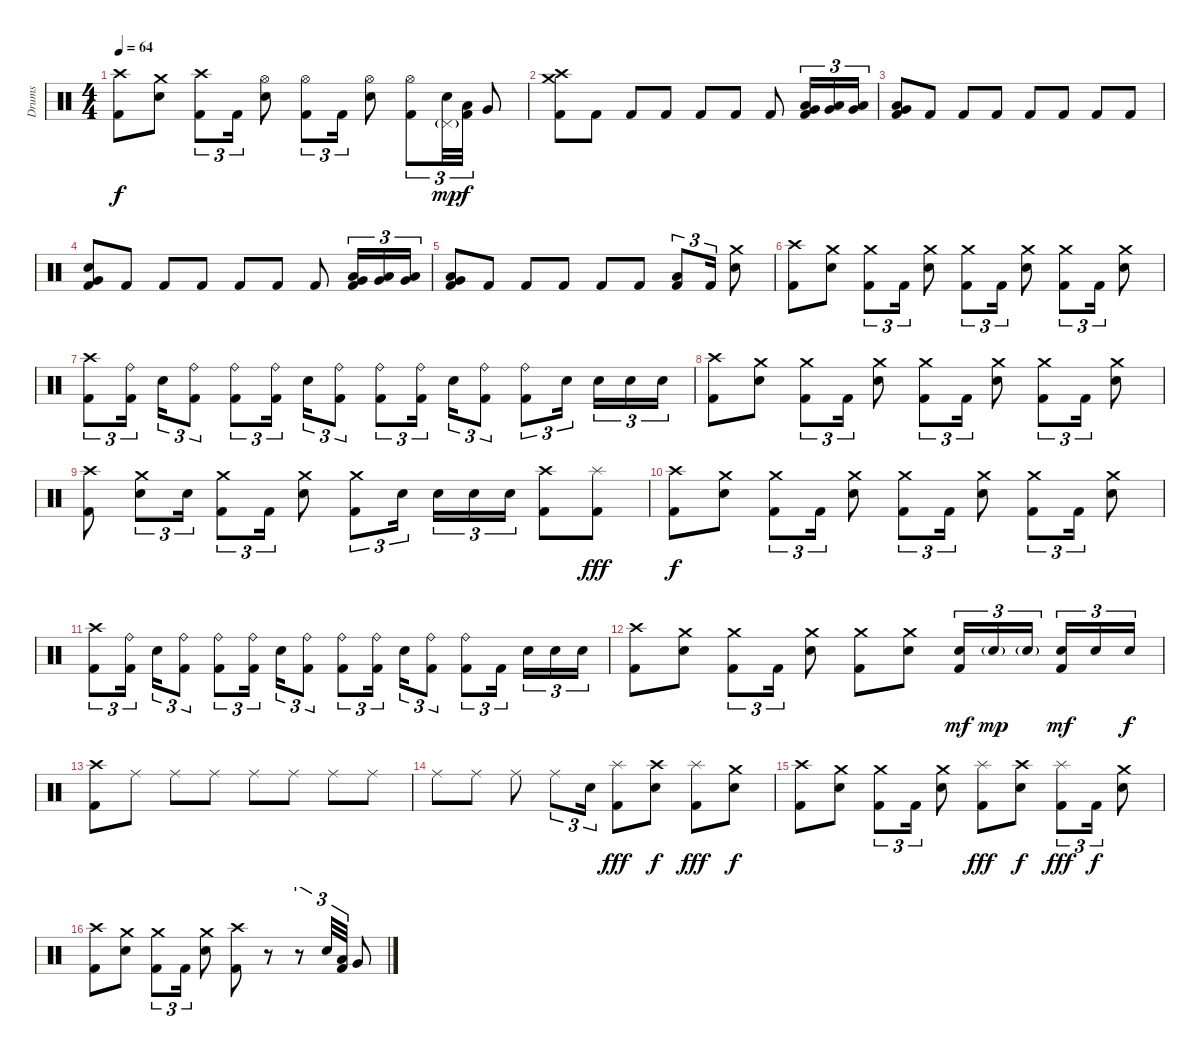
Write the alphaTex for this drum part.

\track ("Drums" "Drums") {instrument percussion}
\staff {score}
\articulation defaults
\ts (4 4)
\tempo 64
\clef neutral
\ks c
("Crash high (hit)" "Kick (hit) 2").8{dy f} ("Crash medium (hit)" "Snare (hit) 2").8 ("Crash high (hit)" "Kick (hit) 2").8{tu (3 2)} "Kick (hit) 2".16{tu (3 2)} ("Hi-Hat (open)" "Snare (hit) 2").8 ("Hi-Hat (open)" "Kick (hit) 2").8{tu (3 2)} "Kick (hit) 2".16{tu (3 2)} ("Hi-Hat (open)" "Snare (hit) 2").8 ("Hi-Hat (open)" "Kick (hit) 2").8{tu (3 2)} ("Pedal Hi-Hat (hit)"{g} "Snare (hit) 2").32{tu (3 2) dy mp} ("Low Tom (hit)" "Kick (hit) 2").32{tu (3 2) dy f} "Very Low Tom (hit)".8 |
("Crash high (hit)" "Crash medium (hit)" "Kick (hit) 2").8 "Kick (hit) 2".8 "Kick (hit) 2".8 "Kick (hit) 2".8 "Kick (hit) 2".8 "Kick (hit) 2".8 "Kick (hit) 2".8 ("Low Tom (hit)" "Very Low Tom (hit)" "Kick (hit) 2").16{tu (3 2)} ("Low Tom (hit)" "Very Low Tom (hit)").16{tu (3 2)} ("Low Tom (hit)" "Very Low Tom (hit)").16{tu (3 2)} |
("Low Tom (hit)" "Very Low Tom (hit)" "Kick (hit) 2").8 "Kick (hit) 2".8 "Kick (hit) 2".8 "Kick (hit) 2".8 "Kick (hit) 2".8 "Kick (hit) 2".8 "Kick (hit) 2".8 "Kick (hit) 2".8 |
("Snare (hit) 2" "Very Low Tom (hit)" "Kick (hit) 2").8 "Kick (hit) 2".8 "Kick (hit) 2".8 "Kick (hit) 2".8 "Kick (hit) 2".8 "Kick (hit) 2".8 "Kick (hit) 2".8 ("Low Tom (hit)" "Very Low Tom (hit)" "Kick (hit) 2").16{tu (3 2)} ("Low Tom (hit)" "Very Low Tom (hit)").16{tu (3 2)} ("Low Tom (hit)" "Very Low Tom (hit)").16{tu (3 2)} |
("Low Tom (hit)" "Very Low Tom (hit)" "Kick (hit) 2").8 "Kick (hit) 2".8 "Kick (hit) 2".8 "Kick (hit) 2".8 "Kick (hit) 2".8 "Kick (hit) 2".8 ("Low Tom (hit)" "Kick (hit) 2").8{tu (3 2)} "Kick (hit) 2".16{tu (3 2)} ("Crash medium (hit)" "Snare (hit) 2").8 |
("Crash high (hit)" "Kick (hit) 2").8 ("Crash medium (hit)" "Snare (hit) 2").8 ("Crash medium (hit)" "Kick (hit) 2").8{tu (3 2)} "Kick (hit) 2".16{tu (3 2)} ("Crash medium (hit)" "Snare (hit) 2").8 ("Crash medium (hit)" "Kick (hit) 2").8{tu (3 2)} "Kick (hit) 2".16{tu (3 2)} ("Crash medium (hit)" "Snare (hit) 2").8 ("Crash medium (hit)" "Kick (hit) 2").8{tu (3 2)} "Kick (hit) 2".16{tu (3 2)} ("Crash medium (hit)" "Snare (hit) 2").8 |
("Crash high (hit)" "Kick (hit) 2").8{tu (3 2)} ("Ride (bell)" "Kick (hit) 2").16{tu (3 2)} "Snare (hit) 2".16{tu (3 2)} ("Ride (bell)" "Kick (hit) 2").8{tu (3 2)} ("Ride (bell)" "Kick (hit) 2").8{tu (3 2)} ("Ride (bell)" "Kick (hit) 2").16{tu (3 2)} "Snare (hit) 2".16{tu (3 2)} ("Ride (bell)" "Kick (hit) 2").8{tu (3 2)} ("Ride (bell)" "Kick (hit) 2").8{tu (3 2)} ("Ride (bell)" "Kick (hit) 2").16{tu (3 2)} "Snare (hit) 2".16{tu (3 2)} ("Ride (bell)" "Kick (hit) 2").8{tu (3 2)} ("Ride (bell)" "Kick (hit) 2").8{tu (3 2)} "Snare (hit) 2".16{tu (3 2)} "Snare (hit) 2".16{tu (3 2)} "Snare (hit) 2".16{tu (3 2)} "Snare (hit) 2".16{tu (3 2)} |
("Crash high (hit)" "Kick (hit) 2").8 ("Crash medium (hit)" "Snare (hit) 2").8 ("Crash medium (hit)" "Kick (hit) 2").8{tu (3 2)} "Kick (hit) 2".16{tu (3 2)} ("Crash medium (hit)" "Snare (hit) 2").8 ("Crash medium (hit)" "Kick (hit) 2").8{tu (3 2)} "Kick (hit) 2".16{tu (3 2)} ("Crash medium (hit)" "Snare (hit) 2").8 ("Crash medium (hit)" "Kick (hit) 2").8{tu (3 2)} "Kick (hit) 2".16{tu (3 2)} ("Crash medium (hit)" "Snare (hit) 2").8 |
("Crash high (hit)" "Kick (hit) 2").8 ("Crash medium (hit)" "Snare (hit) 2").8{tu (3 2)} "Snare (hit) 2".16{tu (3 2)} ("Crash medium (hit)" "Kick (hit) 2").8{tu (3 2)} "Kick (hit) 2".16{tu (3 2)} ("Crash medium (hit)" "Snare (hit) 2").8 ("Crash medium (hit)" "Kick (hit) 2").8{tu (3 2)} "Snare (hit) 2".16{tu (3 2)} "Snare (hit) 2".16{tu (3 2)} "Snare (hit) 2".16{tu (3 2)} "Snare (hit) 2".16{tu (3 2)} ("Crash high (hit)" "Kick (hit) 2").8 ("Splash (hit)" "Kick (hit) 2").8{dy fff} |
("Crash high (hit)" "Kick (hit) 2").8{dy f} ("Crash medium (hit)" "Snare (hit) 2").8 ("Crash medium (hit)" "Kick (hit) 2").8{tu (3 2)} "Kick (hit) 2".16{tu (3 2)} ("Crash medium (hit)" "Snare (hit) 2").8 ("Crash medium (hit)" "Kick (hit) 2").8{tu (3 2)} "Kick (hit) 2".16{tu (3 2)} ("Crash medium (hit)" "Snare (hit) 2").8 ("Crash medium (hit)" "Kick (hit) 2").8{tu (3 2)} "Kick (hit) 2".16{tu (3 2)} ("Crash medium (hit)" "Snare (hit) 2").8 |
("Crash high (hit)" "Kick (hit) 2").8{tu (3 2)} ("Ride (bell)" "Kick (hit) 2").16{tu (3 2)} "Snare (hit) 2".16{tu (3 2)} ("Ride (bell)" "Kick (hit) 2").8{tu (3 2)} ("Ride (bell)" "Kick (hit) 2").8{tu (3 2)} ("Ride (bell)" "Kick (hit) 2").16{tu (3 2)} "Snare (hit) 2".16{tu (3 2)} ("Ride (bell)" "Kick (hit) 2").8{tu (3 2)} ("Ride (bell)" "Kick (hit) 2").8{tu (3 2)} ("Ride (bell)" "Kick (hit) 2").16{tu (3 2)} "Snare (hit) 2".16{tu (3 2)} ("Ride (bell)" "Kick (hit) 2").8{tu (3 2)} ("Ride (bell)" "Kick (hit) 2").8{tu (3 2)} "Kick (hit) 2".16{tu (3 2)} "Snare (hit) 2".16{tu (3 2)} "Snare (hit) 2".16{tu (3 2)} "Snare (hit) 2".16{tu (3 2)} |
("Crash high (hit)" "Kick (hit) 2").8 ("Crash medium (hit)" "Snare (hit) 2").8 ("Crash medium (hit)" "Kick (hit) 2").8{tu (3 2)} "Kick (hit) 2".16{tu (3 2)} ("Crash medium (hit)" "Snare (hit) 2").8 ("Crash medium (hit)" "Kick (hit) 2").8 ("Crash medium (hit)" "Snare (hit) 2").8 ("Snare (hit) 2" "Kick (hit) 2").16{tu (3 2) dy mf} "Snare (hit) 2"{g}.16{tu (3 2) dy mp} "Snare (hit) 2"{g}.16{tu (3 2)} ("Snare (hit) 2" "Kick (hit) 2").16{tu (3 2) dy mf} "Snare (hit) 2".16{tu (3 2)} "Snare (hit) 2".16{tu (3 2) dy f} |
("Crash high (hit)" "Kick (hit) 2").8 "Ride (middle)".8 "Ride (middle)".8 "Ride (middle)".8 "Ride (middle)".8 "Ride (middle)".8 "Ride (middle)".8 "Ride (middle)".8 |
"Ride (middle)".8 "Ride (middle)".8 "Ride (middle)".8 "Ride (middle)".8{tu (3 2)} "Snare (hit) 2".16{tu (3 2)} ("Splash (hit)" "Kick (hit) 2").8{dy fff} ("Crash high (hit)" "Snare (hit) 2").8{dy f} ("Splash (hit)" "Kick (hit) 2").8{dy fff} ("Crash medium (hit)" "Snare (hit) 2").8{dy f} |
("Crash high (hit)" "Kick (hit) 2").8 ("Crash medium (hit)" "Snare (hit) 2").8 ("Crash medium (hit)" "Kick (hit) 2").8{tu (3 2)} "Kick (hit) 2".16{tu (3 2)} ("Crash medium (hit)" "Snare (hit) 2").8 ("Splash (hit)" "Kick (hit) 2").8{dy fff} ("Crash high (hit)" "Snare (hit) 2").8{dy f} ("Splash (hit)" "Kick (hit) 2").8{tu (3 2) dy fff} "Kick (hit) 2".16{tu (3 2) dy f} ("Crash medium (hit)" "Snare (hit) 2").8 |
("Crash high (hit)" "Kick (hit) 2").8 ("Crash medium (hit)" "Snare (hit) 2").8 ("Crash medium (hit)" "Kick (hit) 2").8{tu (3 2)} "Kick (hit) 2".16{tu (3 2)} ("Crash medium (hit)" "Snare (hit) 2").8 ("Crash high (hit)" "Kick (hit) 2").8 r.8{volume 0} r.8{tu (3 2)} "Snare (hit) 2".32{tu (3 2) volume 16} ("Low Tom (hit)" "Kick (hit) 2").32{tu (3 2)} "Very Low Tom (hit)".8
